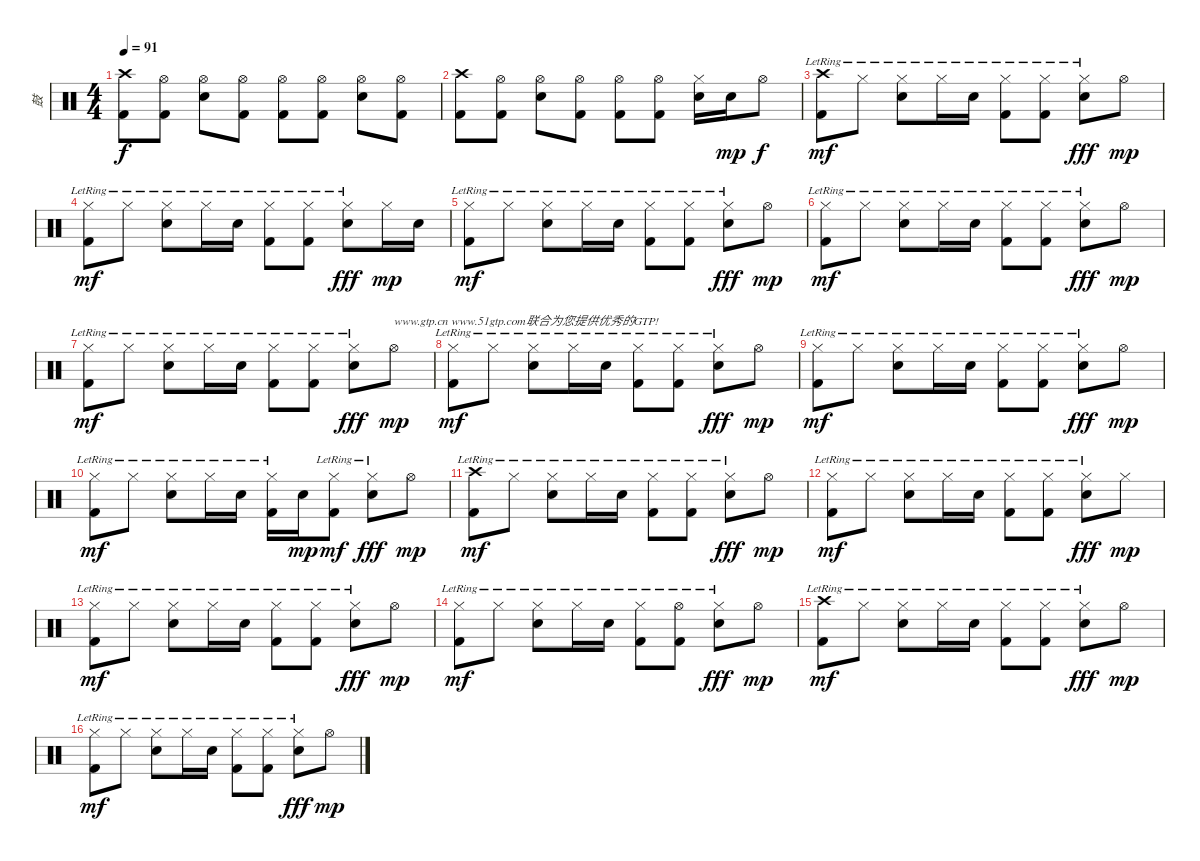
\track ("鼓" "鼓") {instrument percussion}
\staff {score}
\articulation defaults
\ts (4 4)
\tempo 91
\clef neutral
\ks c
("Crash high (hit)" "Kick (hit) 2").8{dy f} ("Hi-Hat (open)" "Kick (hit) 2").8 ("Hi-Hat (open)" "Electric Snare (hit)").8 ("Hi-Hat (open)" "Kick (hit) 2").8 ("Hi-Hat (open)" "Kick (hit) 2").8 ("Hi-Hat (open)" "Kick (hit) 2").8 ("Hi-Hat (open)" "Electric Snare (hit)").8 ("Hi-Hat (open)" "Kick (hit) 2").8 |
("Crash high (hit)" "Kick (hit) 2").8 ("Hi-Hat (open)" "Kick (hit) 2").8 ("Hi-Hat (open)" "Electric Snare (hit)").8 ("Hi-Hat (open)" "Kick (hit) 2").8 ("Hi-Hat (open)" "Kick (hit) 2").8 ("Hi-Hat (open)" "Kick (hit) 2").8 ("Hi-Hat (closed)" "Electric Snare (hit)").16 "Electric Snare (hit)".16{dy mp} "Hi-Hat (open)".8{dy f} |
("Crash high (hit)"{lr} "Kick (hit) 2"{lr}).8{dy mf} "Hi-Hat (closed)"{lr}.8 ("Hi-Hat (closed)"{lr} "Electric Snare (hit)"{lr}).8 "Hi-Hat (closed)"{lr}.16 "Electric Snare (hit)"{lr}.16 ("Hi-Hat (closed)"{lr} "Kick (hit) 2").8 ("Hi-Hat (closed)"{lr} "Kick (hit) 2"{lr}).8 ("Hi-Hat (closed)"{lr} "Electric Snare (hit)"{lr}).8{dy fff} "Hi-Hat (open)".8{dy mp} |
("Hi-Hat (closed)"{lr} "Kick (hit) 2"{lr}).8{dy mf} "Hi-Hat (closed)"{lr}.8 ("Hi-Hat (closed)"{lr} "Electric Snare (hit)"{lr}).8 "Hi-Hat (closed)"{lr}.16 "Electric Snare (hit)"{lr}.16 ("Hi-Hat (closed)"{lr} "Kick (hit) 2").8 ("Hi-Hat (closed)"{lr} "Kick (hit) 2"{lr}).8 ("Hi-Hat (closed)"{lr} "Electric Snare (hit)"{lr}).8{dy fff} "Hi-Hat (closed)".16{dy mp} "Electric Snare (hit)".16 |
("Hi-Hat (closed)"{lr} "Kick (hit) 2"{lr}).8{dy mf} "Hi-Hat (closed)"{lr}.8 ("Hi-Hat (closed)"{lr} "Electric Snare (hit)"{lr}).8 "Hi-Hat (closed)"{lr}.16 "Electric Snare (hit)"{lr}.16 ("Hi-Hat (closed)"{lr} "Kick (hit) 2").8 ("Hi-Hat (closed)"{lr} "Kick (hit) 2"{lr}).8 ("Hi-Hat (closed)"{lr} "Electric Snare (hit)"{lr}).8{dy fff} "Hi-Hat (open)".8{dy mp} |
("Hi-Hat (closed)"{lr} "Kick (hit) 2"{lr}).8{dy mf} "Hi-Hat (closed)"{lr}.8 ("Hi-Hat (closed)"{lr} "Electric Snare (hit)"{lr}).8 "Hi-Hat (closed)"{lr}.16 "Electric Snare (hit)"{lr}.16 ("Hi-Hat (closed)"{lr} "Kick (hit) 2").8 ("Hi-Hat (closed)"{lr} "Kick (hit) 2"{lr}).8 ("Hi-Hat (closed)"{lr} "Electric Snare (hit)"{lr}).8{dy fff} "Hi-Hat (open)".8{dy mp} |
("Hi-Hat (closed)"{lr} "Kick (hit) 2"{lr}).8{dy mf} "Hi-Hat (closed)"{lr}.8 ("Hi-Hat (closed)"{lr} "Electric Snare (hit)"{lr}).8 "Hi-Hat (closed)"{lr}.16 "Electric Snare (hit)"{lr}.16 ("Hi-Hat (closed)"{lr} "Kick (hit) 2").8 ("Hi-Hat (closed)"{lr} "Kick (hit) 2"{lr}).8 ("Hi-Hat (closed)"{lr} "Electric Snare (hit)"{lr}).8{dy fff} "Hi-Hat (open)".8{txt "www.gtp.cn www.51gtp.com联合为您提供优秀的GTP!" dy mp} |
("Hi-Hat (closed)"{lr} "Kick (hit) 2"{lr}).8{dy mf} "Hi-Hat (closed)"{lr}.8 ("Hi-Hat (closed)"{lr} "Electric Snare (hit)"{lr}).8 "Hi-Hat (closed)"{lr}.16 "Electric Snare (hit)"{lr}.16 ("Hi-Hat (closed)"{lr} "Kick (hit) 2").8 ("Hi-Hat (closed)"{lr} "Kick (hit) 2"{lr}).8 ("Hi-Hat (closed)"{lr} "Electric Snare (hit)"{lr}).8{dy fff} "Hi-Hat (open)".8{dy mp} |
("Hi-Hat (closed)"{lr} "Kick (hit) 2"{lr}).8{dy mf} "Hi-Hat (closed)"{lr}.8 ("Hi-Hat (closed)"{lr} "Electric Snare (hit)"{lr}).8 "Hi-Hat (closed)"{lr}.16 "Electric Snare (hit)"{lr}.16 ("Hi-Hat (closed)"{lr} "Kick (hit) 2").8 ("Hi-Hat (closed)"{lr} "Kick (hit) 2"{lr}).8 ("Hi-Hat (closed)"{lr} "Electric Snare (hit)"{lr}).8{dy fff} "Hi-Hat (open)".8{dy mp} |
("Hi-Hat (closed)"{lr} "Kick (hit) 2"{lr}).8{dy mf} "Hi-Hat (closed)"{lr}.8 ("Hi-Hat (closed)"{lr} "Electric Snare (hit)"{lr}).8 "Hi-Hat (closed)"{lr}.16 "Electric Snare (hit)"{lr}.16 ("Hi-Hat (closed)"{lr} "Kick (hit) 2").16 "Electric Snare (hit)".16{dy mp} ("Hi-Hat (closed)"{lr} "Kick (hit) 2"{lr}).8{dy mf} ("Hi-Hat (closed)"{lr} "Electric Snare (hit)"{lr}).8{dy fff} "Hi-Hat (open)".8{dy mp} |
("Crash high (hit)"{lr} "Kick (hit) 2"{lr}).8{dy mf} "Hi-Hat (closed)"{lr}.8 ("Hi-Hat (closed)"{lr} "Electric Snare (hit)"{lr}).8 "Hi-Hat (closed)"{lr}.16 "Electric Snare (hit)"{lr}.16 ("Hi-Hat (closed)"{lr} "Kick (hit) 2").8 ("Hi-Hat (closed)"{lr} "Kick (hit) 2"{lr}).8 ("Hi-Hat (closed)"{lr} "Electric Snare (hit)"{lr}).8{dy fff} "Hi-Hat (open)".8{dy mp} |
("Hi-Hat (closed)"{lr} "Kick (hit) 2"{lr}).8{dy mf} "Hi-Hat (closed)"{lr}.8 ("Hi-Hat (closed)"{lr} "Electric Snare (hit)"{lr}).8 "Hi-Hat (closed)"{lr}.16 "Electric Snare (hit)"{lr}.16 ("Hi-Hat (closed)"{lr} "Kick (hit) 2").8 ("Hi-Hat (closed)"{lr} "Kick (hit) 2"{lr}).8 ("Hi-Hat (closed)"{lr} "Electric Snare (hit)"{lr}).8{dy fff} "Hi-Hat (closed)".8{dy mp} |
("Hi-Hat (closed)"{lr} "Kick (hit) 2"{lr}).8{dy mf} "Hi-Hat (closed)"{lr}.8 ("Hi-Hat (closed)"{lr} "Electric Snare (hit)"{lr}).8 "Hi-Hat (closed)"{lr}.16 "Electric Snare (hit)"{lr}.16 ("Hi-Hat (closed)"{lr} "Kick (hit) 2").8 ("Hi-Hat (closed)"{lr} "Kick (hit) 2"{lr}).8 ("Hi-Hat (closed)"{lr} "Electric Snare (hit)"{lr}).8{dy fff} "Hi-Hat (open)".8{dy mp} |
("Hi-Hat (closed)"{lr} "Kick (hit) 2"{lr}).8{dy mf} "Hi-Hat (closed)"{lr}.8 ("Hi-Hat (closed)"{lr} "Electric Snare (hit)"{lr}).8 "Hi-Hat (closed)"{lr}.16 "Electric Snare (hit)"{lr}.16 ("Hi-Hat (closed)"{lr} "Kick (hit) 2").8 ("Hi-Hat (open)"{lr} "Kick (hit) 2"{lr}).8 ("Hi-Hat (closed)"{lr} "Electric Snare (hit)"{lr}).8{dy fff} "Hi-Hat (open)".8{dy mp} |
("Crash high (hit)"{lr} "Kick (hit) 2"{lr}).8{dy mf} "Hi-Hat (closed)"{lr}.8 ("Hi-Hat (closed)"{lr} "Electric Snare (hit)"{lr}).8 "Hi-Hat (closed)"{lr}.16 "Electric Snare (hit)"{lr}.16 ("Hi-Hat (closed)"{lr} "Kick (hit) 2").8 ("Hi-Hat (closed)"{lr} "Kick (hit) 2"{lr}).8 ("Hi-Hat (closed)"{lr} "Electric Snare (hit)"{lr}).8{dy fff} "Hi-Hat (open)".8{dy mp} |
("Hi-Hat (closed)"{lr} "Kick (hit) 2"{lr}).8{dy mf} "Hi-Hat (closed)"{lr}.8 ("Hi-Hat (closed)"{lr} "Electric Snare (hit)"{lr}).8 "Hi-Hat (closed)"{lr}.16 "Electric Snare (hit)"{lr}.16 ("Hi-Hat (closed)"{lr} "Kick (hit) 2").8 ("Hi-Hat (closed)"{lr} "Kick (hit) 2"{lr}).8 ("Hi-Hat (closed)"{lr} "Electric Snare (hit)"{lr}).8{dy fff} "Hi-Hat (open)".8{dy mp}
